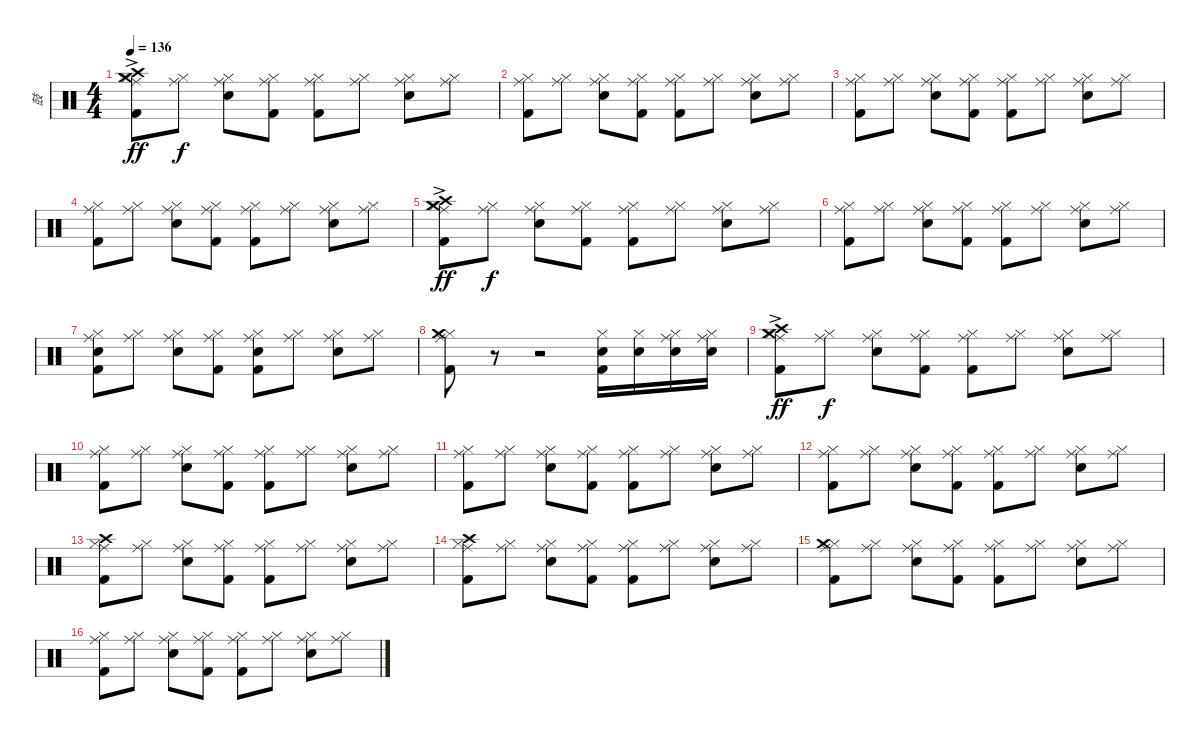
\track ("鼓" "鼓") {instrument percussion}
\staff {score}
\articulation defaults
\ts (4 4)
\tempo 136
\clef neutral
\ks c
("Ride (middle)"{ac} "Hi-Hat (closed)"{ac} "Crash high (hit)"{ac} "Crash medium (hit)"{ac} "Kick (hit) 2"{ac}).8{dy ff} ("Ride (middle)" "Hi-Hat (closed)").8{dy f} ("Ride (middle)" "Hi-Hat (closed)" "Electric Snare (hit)").8 ("Ride (middle)" "Hi-Hat (closed)" "Kick (hit) 2").8 ("Ride (middle)" "Hi-Hat (closed)" "Kick (hit) 2").8 ("Ride (middle)" "Hi-Hat (closed)").8 ("Ride (middle)" "Hi-Hat (closed)" "Electric Snare (hit)").8 ("Ride (middle)" "Hi-Hat (closed)").8 |
("Ride (middle)" "Hi-Hat (closed)" "Kick (hit) 2").8 ("Ride (middle)" "Hi-Hat (closed)").8 ("Ride (middle)" "Hi-Hat (closed)" "Electric Snare (hit)").8 ("Ride (middle)" "Hi-Hat (closed)" "Kick (hit) 2").8 ("Ride (middle)" "Hi-Hat (closed)" "Kick (hit) 2").8 ("Ride (middle)" "Hi-Hat (closed)").8 ("Ride (middle)" "Hi-Hat (closed)" "Electric Snare (hit)").8 ("Ride (middle)" "Hi-Hat (closed)").8 |
("Ride (middle)" "Hi-Hat (closed)" "Kick (hit) 2").8 ("Ride (middle)" "Hi-Hat (closed)").8 ("Ride (middle)" "Hi-Hat (closed)" "Electric Snare (hit)").8 ("Ride (middle)" "Hi-Hat (closed)" "Kick (hit) 2").8 ("Ride (middle)" "Hi-Hat (closed)" "Kick (hit) 2").8 ("Ride (middle)" "Hi-Hat (closed)").8 ("Ride (middle)" "Hi-Hat (closed)" "Electric Snare (hit)").8 ("Ride (middle)" "Hi-Hat (closed)").8 |
("Ride (middle)" "Hi-Hat (closed)" "Kick (hit) 2").8 ("Ride (middle)" "Hi-Hat (closed)").8 ("Ride (middle)" "Hi-Hat (closed)" "Electric Snare (hit)").8 ("Ride (middle)" "Hi-Hat (closed)" "Kick (hit) 2").8 ("Ride (middle)" "Hi-Hat (closed)" "Kick (hit) 2").8 ("Ride (middle)" "Hi-Hat (closed)").8 ("Ride (middle)" "Hi-Hat (closed)" "Electric Snare (hit)").8 ("Ride (middle)" "Hi-Hat (closed)").8 |
("Ride (middle)"{ac} "Hi-Hat (closed)"{ac} "Crash high (hit)"{ac} "Crash medium (hit)"{ac} "Kick (hit) 2"{ac}).8{dy ff} ("Ride (middle)" "Hi-Hat (closed)").8{dy f} ("Ride (middle)" "Hi-Hat (closed)" "Electric Snare (hit)").8 ("Ride (middle)" "Hi-Hat (closed)" "Kick (hit) 2").8 ("Ride (middle)" "Hi-Hat (closed)" "Kick (hit) 2").8 ("Ride (middle)" "Hi-Hat (closed)").8 ("Ride (middle)" "Hi-Hat (closed)" "Electric Snare (hit)").8 ("Ride (middle)" "Hi-Hat (closed)").8 |
("Ride (middle)" "Hi-Hat (closed)" "Kick (hit) 2").8 ("Ride (middle)" "Hi-Hat (closed)").8 ("Ride (middle)" "Hi-Hat (closed)" "Electric Snare (hit)").8 ("Ride (middle)" "Hi-Hat (closed)" "Kick (hit) 2").8 ("Ride (middle)" "Hi-Hat (closed)" "Kick (hit) 2").8 ("Ride (middle)" "Hi-Hat (closed)").8 ("Ride (middle)" "Hi-Hat (closed)" "Electric Snare (hit)").8 ("Ride (middle)" "Hi-Hat (closed)").8 |
("Ride (middle)" "Hi-Hat (closed)" "Electric Snare (hit)" "Kick (hit) 2").8 ("Ride (middle)" "Hi-Hat (closed)").8 ("Ride (middle)" "Hi-Hat (closed)" "Electric Snare (hit)").8 ("Ride (middle)" "Hi-Hat (closed)" "Kick (hit) 2").8 ("Ride (middle)" "Hi-Hat (closed)" "Electric Snare (hit)" "Kick (hit) 2").8 ("Ride (middle)" "Hi-Hat (closed)").8 ("Ride (middle)" "Hi-Hat (closed)" "Electric Snare (hit)").8 ("Ride (middle)" "Hi-Hat (closed)").8 |
("Ride (middle)" "Hi-Hat (closed)" "Crash medium (hit)" "Kick (hit) 2").8 r.8 r.2 ("Hi-Hat (closed)" "Electric Snare (hit)" "Kick (hit) 2").16 ("Hi-Hat (closed)" "Electric Snare (hit)").16 ("Ride (middle)" "Hi-Hat (closed)" "Electric Snare (hit)").16 ("Ride (middle)" "Hi-Hat (closed)" "Electric Snare (hit)").16 |
("Ride (middle)"{ac} "Hi-Hat (closed)"{ac} "Crash high (hit)"{ac} "Crash medium (hit)"{ac} "Kick (hit) 2"{ac}).8{dy ff} ("Ride (middle)" "Hi-Hat (closed)").8{dy f} ("Ride (middle)" "Hi-Hat (closed)" "Electric Snare (hit)").8 ("Ride (middle)" "Hi-Hat (closed)" "Kick (hit) 2").8 ("Ride (middle)" "Hi-Hat (closed)" "Kick (hit) 2").8 ("Ride (middle)" "Hi-Hat (closed)").8 ("Ride (middle)" "Hi-Hat (closed)" "Electric Snare (hit)").8 ("Ride (middle)" "Hi-Hat (closed)").8 |
("Ride (middle)" "Hi-Hat (closed)" "Kick (hit) 2").8 ("Ride (middle)" "Hi-Hat (closed)").8 ("Ride (middle)" "Hi-Hat (closed)" "Electric Snare (hit)").8 ("Ride (middle)" "Hi-Hat (closed)" "Kick (hit) 2").8 ("Ride (middle)" "Hi-Hat (closed)" "Kick (hit) 2").8 ("Ride (middle)" "Hi-Hat (closed)").8 ("Ride (middle)" "Hi-Hat (closed)" "Electric Snare (hit)").8 ("Ride (middle)" "Hi-Hat (closed)").8 |
("Ride (middle)" "Hi-Hat (closed)" "Kick (hit) 2").8 ("Ride (middle)" "Hi-Hat (closed)").8 ("Ride (middle)" "Hi-Hat (closed)" "Electric Snare (hit)").8 ("Ride (middle)" "Hi-Hat (closed)" "Kick (hit) 2").8 ("Ride (middle)" "Hi-Hat (closed)" "Kick (hit) 2").8 ("Ride (middle)" "Hi-Hat (closed)").8 ("Ride (middle)" "Hi-Hat (closed)" "Electric Snare (hit)").8 ("Ride (middle)" "Hi-Hat (closed)").8 |
("Ride (middle)" "Hi-Hat (closed)" "Kick (hit) 2").8 ("Ride (middle)" "Hi-Hat (closed)").8 ("Ride (middle)" "Hi-Hat (closed)" "Electric Snare (hit)").8 ("Ride (middle)" "Hi-Hat (closed)" "Kick (hit) 2").8 ("Ride (middle)" "Hi-Hat (closed)" "Kick (hit) 2").8 ("Ride (middle)" "Hi-Hat (closed)").8 ("Ride (middle)" "Hi-Hat (closed)" "Electric Snare (hit)").8 ("Ride (middle)" "Hi-Hat (closed)").8 |
("Ride (middle)" "Hi-Hat (closed)" "Crash high (hit)" "Kick (hit) 2").8 ("Ride (middle)" "Hi-Hat (closed)").8 ("Ride (middle)" "Hi-Hat (closed)" "Electric Snare (hit)").8 ("Ride (middle)" "Hi-Hat (closed)" "Kick (hit) 2").8 ("Ride (middle)" "Hi-Hat (closed)" "Kick (hit) 2").8 ("Ride (middle)" "Hi-Hat (closed)").8 ("Ride (middle)" "Hi-Hat (closed)" "Electric Snare (hit)").8 ("Ride (middle)" "Hi-Hat (closed)").8 |
("Ride (middle)" "Hi-Hat (closed)" "Crash high (hit)" "Kick (hit) 2").8 ("Ride (middle)" "Hi-Hat (closed)").8 ("Ride (middle)" "Hi-Hat (closed)" "Electric Snare (hit)").8 ("Ride (middle)" "Hi-Hat (closed)" "Kick (hit) 2").8 ("Ride (middle)" "Hi-Hat (closed)" "Kick (hit) 2").8 ("Ride (middle)" "Hi-Hat (closed)").8 ("Ride (middle)" "Hi-Hat (closed)" "Electric Snare (hit)").8 ("Ride (middle)" "Hi-Hat (closed)").8 |
("Ride (middle)" "Hi-Hat (closed)" "Crash medium (hit)" "Kick (hit) 2").8 ("Ride (middle)" "Hi-Hat (closed)").8 ("Ride (middle)" "Hi-Hat (closed)" "Electric Snare (hit)").8 ("Ride (middle)" "Hi-Hat (closed)" "Kick (hit) 2").8 ("Ride (middle)" "Hi-Hat (closed)" "Kick (hit) 2").8 ("Ride (middle)" "Hi-Hat (closed)").8 ("Ride (middle)" "Hi-Hat (closed)" "Electric Snare (hit)").8 ("Ride (middle)" "Hi-Hat (closed)").8 |
("Ride (middle)" "Hi-Hat (closed)" "Kick (hit) 2").8 ("Ride (middle)" "Hi-Hat (closed)").8 ("Ride (middle)" "Hi-Hat (closed)" "Electric Snare (hit)").8 ("Ride (middle)" "Hi-Hat (closed)" "Kick (hit) 2").8 ("Ride (middle)" "Hi-Hat (closed)" "Kick (hit) 2").8 ("Ride (middle)" "Hi-Hat (closed)").8 ("Ride (middle)" "Hi-Hat (closed)" "Electric Snare (hit)").8 ("Ride (middle)" "Hi-Hat (closed)").8
